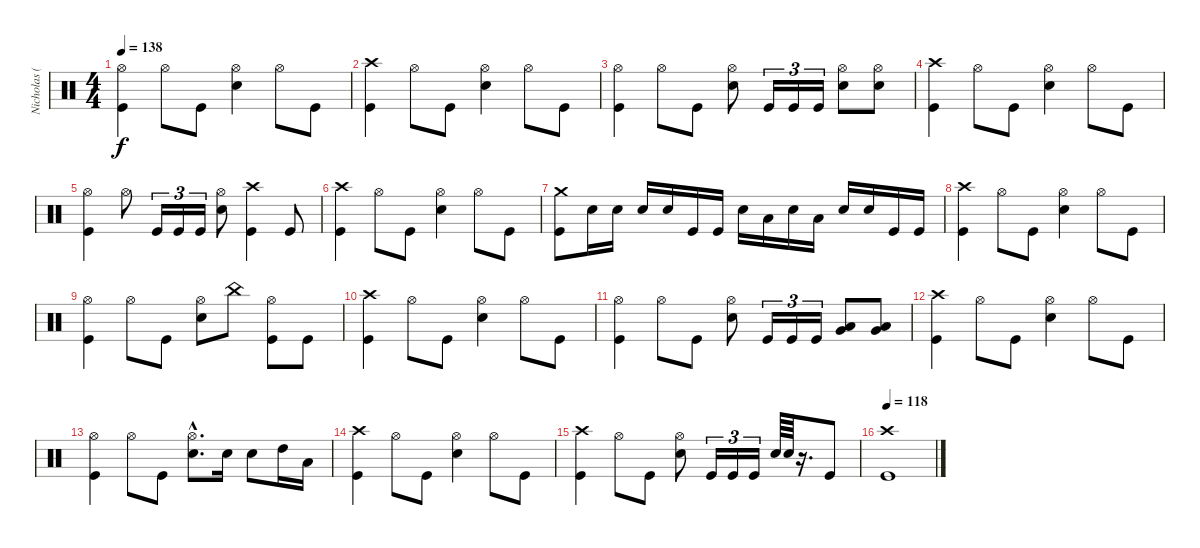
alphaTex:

\track ("Nicholas (Drums)" "Nicholas (") {instrument percussion}
\staff {score}
\articulation defaults
\ts (4 4)
\tempo 138
\clef neutral
\ks c
("Hi-Hat (open)" "Kick (hit)").4{dy f} "Hi-Hat (open)".8 "Kick (hit)".8 ("Hi-Hat (open)" "Electric Snare (hit)").4 "Hi-Hat (open)".8 "Kick (hit)".8 |
("Crash high (hit)" "Kick (hit)").4 "Hi-Hat (open)".8 "Kick (hit)".8 ("Hi-Hat (open)" "Electric Snare (hit)").4 "Hi-Hat (open)".8 "Kick (hit)".8 |
("Hi-Hat (open)" "Kick (hit)").4 "Hi-Hat (open)".8 "Kick (hit)".8 ("Hi-Hat (open)" "Electric Snare (hit)").8 "Kick (hit)".16{tu (3 2)} "Kick (hit)".16{tu (3 2)} "Kick (hit)".16{tu (3 2)} ("Hi-Hat (open)" "Electric Snare (hit)").8 ("Hi-Hat (open)" "Electric Snare (hit)").8 |
("Crash high (hit)" "Kick (hit)").4 "Hi-Hat (open)".8 "Kick (hit)".8 ("Hi-Hat (open)" "Electric Snare (hit)").4 "Hi-Hat (open)".8 "Kick (hit)".8 |
("Hi-Hat (open)" "Kick (hit)").4 "Hi-Hat (open)".8 "Kick (hit)".16{tu (3 2)} "Kick (hit)".16{tu (3 2)} "Kick (hit)".16{tu (3 2)} ("Hi-Hat (open)" "Electric Snare (hit)").8 ("Crash high (hit)" "Kick (hit)").4 "Kick (hit)".8 |
("Crash high (hit)" "Kick (hit)").4 "Hi-Hat (open)".8 "Kick (hit)".8 ("Hi-Hat (open)" "Electric Snare (hit)").4 "Hi-Hat (open)".8 "Kick (hit)".8 |
("Crash medium (hit)" "Kick (hit)").8 "Electric Snare (hit)".16 "Electric Snare (hit)".16 "Electric Snare (hit)".16 "Electric Snare (hit)".16 "Kick (hit)".16 "Kick (hit)".16 "Electric Snare (hit)".16 "Low Tom (hit)".16 "Electric Snare (hit)".16 "Low Tom (hit)".16 "Electric Snare (hit)".16 "Electric Snare (hit)".16 "Kick (hit)".16 "Kick (hit)".16 |
("Crash high (hit)" "Kick (hit)").4 "Hi-Hat (open)".8 "Kick (hit)".8 ("Hi-Hat (open)" "Electric Snare (hit)").4 "Hi-Hat (open)".8 "Kick (hit)".8 |
("Hi-Hat (open)" "Kick (hit)").4 "Hi-Hat (open)".8 "Kick (hit)".8 ("Hi-Hat (open)" "Electric Snare (hit)").8 "China (hit)".8 ("Hi-Hat (open)" "Kick (hit)").8 "Kick (hit)".8 |
("Crash high (hit)" "Kick (hit)").4 "Hi-Hat (open)".8 "Kick (hit)".8 ("Hi-Hat (open)" "Electric Snare (hit)").4 "Hi-Hat (open)".8 "Kick (hit)".8 |
("Hi-Hat (open)" "Kick (hit)").4 "Hi-Hat (open)".8 "Kick (hit)".8 ("Hi-Hat (open)" "Electric Snare (hit)").8 "Kick (hit)".16{tu (3 2)} "Kick (hit)".16{tu (3 2)} "Kick (hit)".16{tu (3 2)} ("Low Tom (hit)" "Very Low Tom (hit)").8{bu 60} ("Low Tom (hit)" "Very Low Tom (hit)").8{bu 60} |
("Crash high (hit)" "Kick (hit)").4 "Hi-Hat (open)".8 "Kick (hit)".8 ("Hi-Hat (open)" "Electric Snare (hit)").4 "Hi-Hat (open)".8 "Kick (hit)".8 |
("Hi-Hat (open)" "Kick (hit)").4 "Hi-Hat (open)".8 "Kick (hit)".8 ("Hi-Hat (open)"{hac} "Electric Snare (hit)"{hac}).8{d} "Electric Snare (hit)".16 "Electric Snare (hit)".8 "High Tom (hit)".16 "Low Tom (hit)".16 |
("Crash high (hit)" "Kick (hit)").4 "Hi-Hat (open)".8 "Kick (hit)".8 ("Hi-Hat (open)" "Electric Snare (hit)").4 "Hi-Hat (open)".8 "Kick (hit)".8 |
("Crash high (hit)" "Kick (hit)").4 "Hi-Hat (open)".8 "Kick (hit)".8 ("Hi-Hat (open)" "Electric Snare (hit)").8 "Kick (hit)".16{tu (3 2)} "Kick (hit)".16{tu (3 2)} "Kick (hit)".16{tu (3 2)} "Electric Snare (hit)".64 "Electric Snare (hit)".64 r.16{d} "Kick (hit)".8 |
\tempo 118
("Crash high (hit)" "Kick (hit)").1
